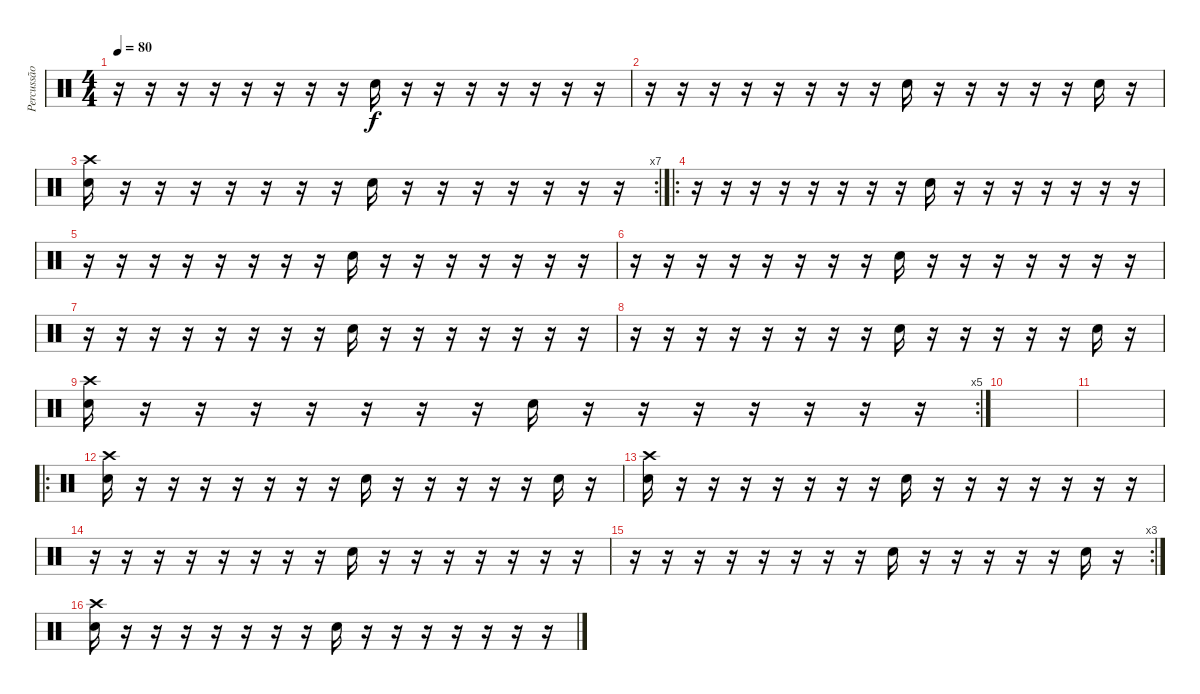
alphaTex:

\track ("Percussão" "Percussão") {instrument percussion}
\staff {score}
\articulation defaults
\ts (4 4)
\tempo 80
\clef neutral
\ks c
r.16{dy f} r.16 r.16 r.16 r.16 r.16 r.16 r.16 "Electric Snare (hit)".16 r.16 r.16 r.16 r.16 r.16 r.16 r.16 |
r.16 r.16 r.16 r.16 r.16 r.16 r.16 r.16 "Electric Snare (hit)".16 r.16 r.16 r.16 r.16 r.16 "Electric Snare (hit)".16 r.16 |
\rc 7
("Crash high (hit)" "Electric Snare (hit)").16 r.16 r.16 r.16 r.16 r.16 r.16 r.16 "Electric Snare (hit)".16 r.16 r.16 r.16 r.16 r.16 r.16 r.16 |
\ro
r.16 r.16 r.16 r.16 r.16 r.16 r.16 r.16 "Electric Snare (hit)".16 r.16 r.16 r.16 r.16 r.16 r.16 r.16 |
r.16 r.16 r.16 r.16 r.16 r.16 r.16 r.16 "Electric Snare (hit)".16 r.16 r.16 r.16 r.16 r.16 r.16 r.16 |
r.16 r.16 r.16 r.16 r.16 r.16 r.16 r.16 "Electric Snare (hit)".16 r.16 r.16 r.16 r.16 r.16 r.16 r.16 |
r.16 r.16 r.16 r.16 r.16 r.16 r.16 r.16 "Electric Snare (hit)".16 r.16 r.16 r.16 r.16 r.16 r.16 r.16 |
r.16 r.16 r.16 r.16 r.16 r.16 r.16 r.16 "Electric Snare (hit)".16 r.16 r.16 r.16 r.16 r.16 "Electric Snare (hit)".16 r.16 |
\rc 5
("Crash high (hit)" "Electric Snare (hit)").16 r.16 r.16 r.16 r.16 r.16 r.16 r.16 "Electric Snare (hit)".16 r.16 r.16 r.16 r.16 r.16 r.16 r.16 |
|
|
\ro
("Crash high (hit)" "Electric Snare (hit)").16 r.16 r.16 r.16 r.16 r.16 r.16 r.16 "Electric Snare (hit)".16 r.16 r.16 r.16 r.16 r.16 "Electric Snare (hit)".16 r.16 |
("Crash high (hit)" "Electric Snare (hit)").16 r.16 r.16 r.16 r.16 r.16 r.16 r.16 "Electric Snare (hit)".16 r.16 r.16 r.16 r.16 r.16 r.16 r.16 |
r.16 r.16 r.16 r.16 r.16 r.16 r.16 r.16 "Electric Snare (hit)".16 r.16 r.16 r.16 r.16 r.16 r.16 r.16 |
\rc 3
r.16 r.16 r.16 r.16 r.16 r.16 r.16 r.16 "Electric Snare (hit)".16 r.16 r.16 r.16 r.16 r.16 "Electric Snare (hit)".16 r.16 |
("Crash high (hit)" "Electric Snare (hit)").16 r.16 r.16 r.16 r.16 r.16 r.16 r.16 "Electric Snare (hit)".16 r.16 r.16 r.16 r.16 r.16 r.16 r.16
